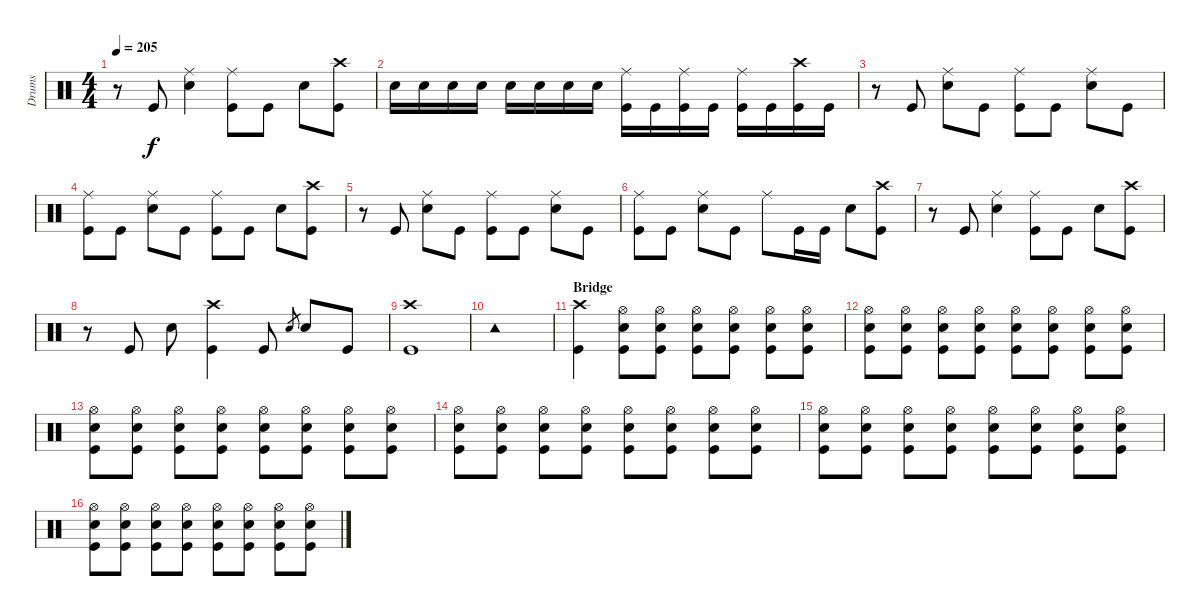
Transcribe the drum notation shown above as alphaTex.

\track ("Drums" "Drums") {instrument percussion}
\staff {score}
\articulation defaults
\ts (4 4)
\tempo 205
\clef neutral
\ks c
r.8{dy f} "Kick (hit)".8 ("Ride (middle)" "Snare (hit) 2").4 ("Ride (middle)" "Kick (hit)").8 "Kick (hit)".8 "Snare (hit) 2".8 ("Crash high (hit)" "Kick (hit)").8 |
"Snare (hit) 2".16 "Snare (hit) 2".16 "Snare (hit) 2".16 "Snare (hit) 2".16 "Snare (hit) 2".16 "Snare (hit) 2".16 "Snare (hit) 2".16 "Snare (hit) 2".16 ("Ride (middle)" "Kick (hit)").16 "Kick (hit)".16 ("Ride (middle)" "Kick (hit)").16 "Kick (hit)".16 ("Ride (middle)" "Kick (hit)").16 "Kick (hit)".16 ("Crash high (hit)" "Kick (hit)").16 "Kick (hit)".16 |
r.8 "Kick (hit)".8 ("Ride (middle)" "Snare (hit) 2").8 "Kick (hit)".8 ("Ride (middle)" "Kick (hit)").8 "Kick (hit)".8 ("Ride (middle)" "Snare (hit) 2").8 "Kick (hit)".8 |
("Ride (middle)" "Kick (hit)").8 "Kick (hit)".8 ("Ride (middle)" "Snare (hit) 2").8 "Kick (hit)".8 ("Ride (middle)" "Kick (hit)").8 "Kick (hit)".8 "Snare (hit) 2".8 ("Crash high (hit)" "Kick (hit)").8 |
r.8 "Kick (hit)".8 ("Ride (middle)" "Snare (hit) 2").8 "Kick (hit)".8 ("Ride (middle)" "Kick (hit)").8 "Kick (hit)".8 ("Ride (middle)" "Snare (hit) 2").8 "Kick (hit)".8 |
("Ride (middle)" "Kick (hit)").8 "Kick (hit)".8 ("Ride (middle)" "Snare (hit) 2").8 "Kick (hit)".8 "Ride (middle)".8 "Kick (hit)".16 "Kick (hit)".16 "Snare (hit) 2".8 ("Crash high (hit)" "Kick (hit)").8 |
r.8 "Kick (hit)".8 ("Ride (middle)" "Snare (hit) 2").4 ("Ride (middle)" "Kick (hit)").8 "Kick (hit)".8 "Snare (hit) 2".8 ("Crash high (hit)" "Kick (hit)").8 |
r.8 "Kick (hit)".8 "Snare (hit) 2".8 ("Crash high (hit)" "Kick (hit)").4 "Kick (hit)".8 "Snare (hit) 2".8{gr} "Snare (hit) 2".8 "Kick (hit)".8 |
("Crash high (hit)" "Kick (hit)").1 |
"Tambourine (hit)".1 |
\section ("" "Bridge")
("Crash high (hit)" "Kick (hit)").4 ("Hi-Hat (open)" "Snare (hit) 2" "Kick (hit)").8 ("Hi-Hat (open)" "Snare (hit) 2" "Kick (hit)").8 ("Hi-Hat (open)" "Snare (hit) 2" "Kick (hit)").8 ("Hi-Hat (open)" "Snare (hit) 2" "Kick (hit)").8 ("Hi-Hat (open)" "Snare (hit) 2" "Kick (hit)").8 ("Hi-Hat (open)" "Snare (hit) 2" "Kick (hit)").8 |
("Hi-Hat (open)" "Snare (hit) 2" "Kick (hit)").8 ("Hi-Hat (open)" "Snare (hit) 2" "Kick (hit)").8 ("Hi-Hat (open)" "Snare (hit) 2" "Kick (hit)").8 ("Hi-Hat (open)" "Snare (hit) 2" "Kick (hit)").8 ("Hi-Hat (open)" "Snare (hit) 2" "Kick (hit)").8 ("Hi-Hat (open)" "Snare (hit) 2" "Kick (hit)").8 ("Hi-Hat (open)" "Snare (hit) 2" "Kick (hit)").8 ("Hi-Hat (open)" "Snare (hit) 2" "Kick (hit)").8 |
("Hi-Hat (open)" "Snare (hit) 2" "Kick (hit)").8 ("Hi-Hat (open)" "Snare (hit) 2" "Kick (hit)").8 ("Hi-Hat (open)" "Snare (hit) 2" "Kick (hit)").8 ("Hi-Hat (open)" "Snare (hit) 2" "Kick (hit)").8 ("Hi-Hat (open)" "Snare (hit) 2" "Kick (hit)").8 ("Hi-Hat (open)" "Snare (hit) 2" "Kick (hit)").8 ("Hi-Hat (open)" "Snare (hit) 2" "Kick (hit)").8 ("Hi-Hat (open)" "Snare (hit) 2" "Kick (hit)").8 |
("Hi-Hat (open)" "Snare (hit) 2" "Kick (hit)").8 ("Hi-Hat (open)" "Snare (hit) 2" "Kick (hit)").8 ("Hi-Hat (open)" "Snare (hit) 2" "Kick (hit)").8 ("Hi-Hat (open)" "Snare (hit) 2" "Kick (hit)").8 ("Hi-Hat (open)" "Snare (hit) 2" "Kick (hit)").8 ("Hi-Hat (open)" "Snare (hit) 2" "Kick (hit)").8 ("Hi-Hat (open)" "Snare (hit) 2" "Kick (hit)").8 ("Hi-Hat (open)" "Snare (hit) 2" "Kick (hit)").8 |
("Hi-Hat (open)" "Snare (hit) 2" "Kick (hit)").8 ("Hi-Hat (open)" "Snare (hit) 2" "Kick (hit)").8 ("Hi-Hat (open)" "Snare (hit) 2" "Kick (hit)").8 ("Hi-Hat (open)" "Snare (hit) 2" "Kick (hit)").8 ("Hi-Hat (open)" "Snare (hit) 2" "Kick (hit)").8 ("Hi-Hat (open)" "Snare (hit) 2" "Kick (hit)").8 ("Hi-Hat (open)" "Snare (hit) 2" "Kick (hit)").8 ("Hi-Hat (open)" "Snare (hit) 2" "Kick (hit)").8 |
("Hi-Hat (open)" "Snare (hit) 2" "Kick (hit)").8 ("Hi-Hat (open)" "Snare (hit) 2" "Kick (hit)").8 ("Hi-Hat (open)" "Snare (hit) 2" "Kick (hit)").8 ("Hi-Hat (open)" "Snare (hit) 2" "Kick (hit)").8 ("Hi-Hat (open)" "Snare (hit) 2" "Kick (hit)").8 ("Hi-Hat (open)" "Snare (hit) 2" "Kick (hit)").8 ("Hi-Hat (open)" "Snare (hit) 2" "Kick (hit)").8 ("Hi-Hat (open)" "Snare (hit) 2" "Kick (hit)").8
